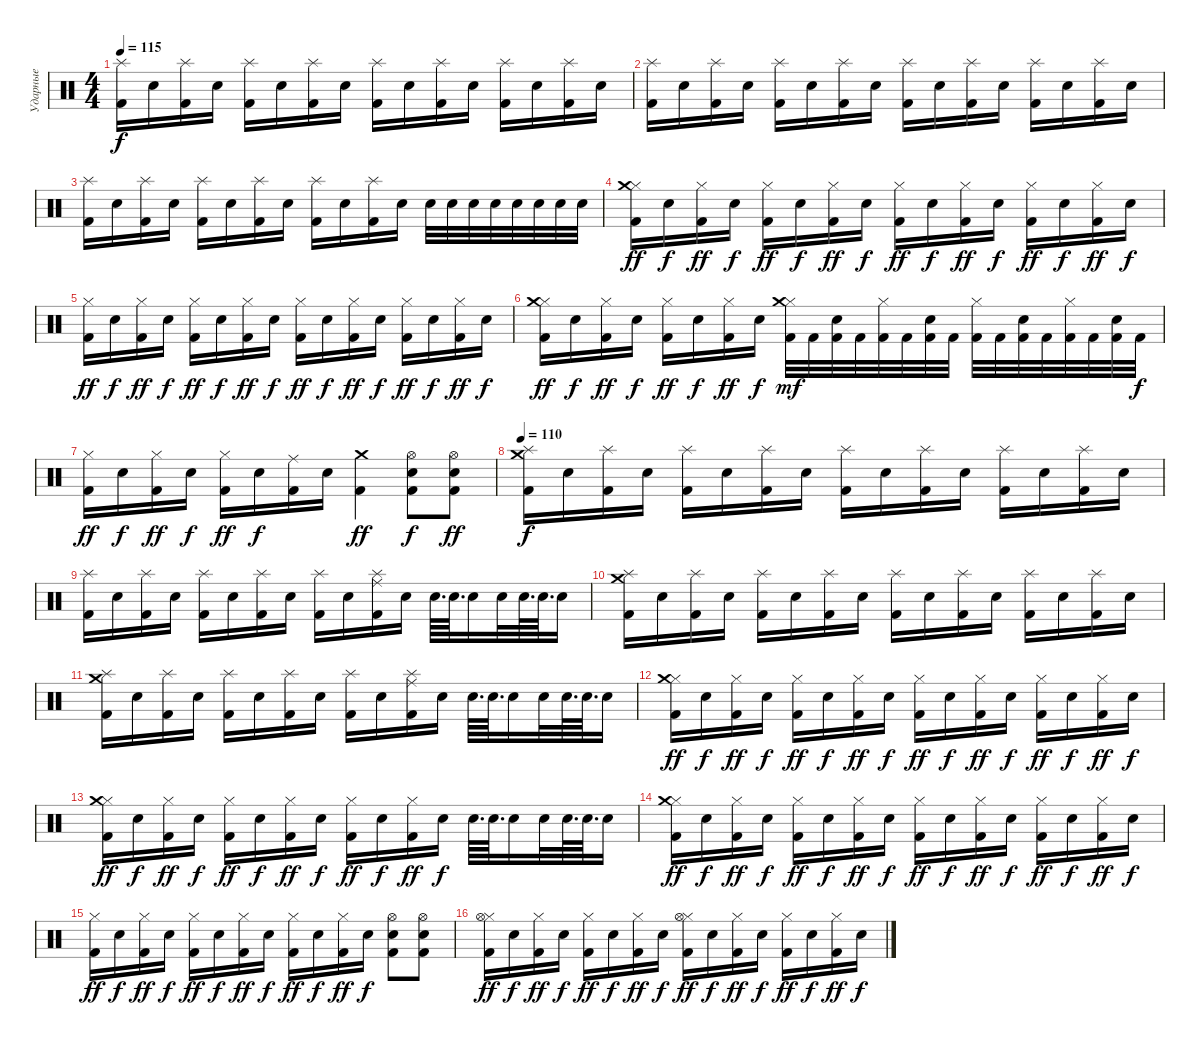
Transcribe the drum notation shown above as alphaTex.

\track ("Ударные" "Ударные") {instrument percussion}
\staff {score}
\articulation defaults
\ts (4 4)
\tempo 115
\clef neutral
\ks c
("Splash (hit)" "Kick (hit) 2").16{dy f} "Electric Snare (hit)".16 ("Splash (hit)" "Kick (hit) 2").16 "Electric Snare (hit)".16 ("Splash (hit)" "Kick (hit) 2").16 "Electric Snare (hit)".16 ("Splash (hit)" "Kick (hit) 2").16 "Electric Snare (hit)".16 ("Splash (hit)" "Kick (hit) 2").16 "Electric Snare (hit)".16 ("Splash (hit)" "Kick (hit) 2").16 "Electric Snare (hit)".16 ("Splash (hit)" "Kick (hit) 2").16 "Electric Snare (hit)".16 ("Splash (hit)" "Kick (hit) 2").16 "Electric Snare (hit)".16 |
("Splash (hit)" "Kick (hit) 2").16 "Electric Snare (hit)".16 ("Splash (hit)" "Kick (hit) 2").16 "Electric Snare (hit)".16 ("Splash (hit)" "Kick (hit) 2").16 "Electric Snare (hit)".16 ("Splash (hit)" "Kick (hit) 2").16 "Electric Snare (hit)".16 ("Splash (hit)" "Kick (hit) 2").16 "Electric Snare (hit)".16 ("Splash (hit)" "Kick (hit) 2").16 "Electric Snare (hit)".16 ("Splash (hit)" "Kick (hit) 2").16 "Electric Snare (hit)".16 ("Splash (hit)" "Kick (hit) 2").16 "Electric Snare (hit)".16 |
("Splash (hit)" "Kick (hit) 2").16 "Electric Snare (hit)".16 ("Splash (hit)" "Kick (hit) 2").16 "Electric Snare (hit)".16 ("Splash (hit)" "Kick (hit) 2").16 "Electric Snare (hit)".16 ("Splash (hit)" "Kick (hit) 2").16 "Electric Snare (hit)".16 ("Splash (hit)" "Kick (hit) 2").16 "Electric Snare (hit)".16 ("Splash (hit)" "Kick (hit) 2").16 "Electric Snare (hit)".16 "Snare (hit) 2".32 "Snare (hit) 2".32 "Snare (hit) 2".32 "Snare (hit) 2".32 "Electric Snare (hit)".32 "Electric Snare (hit)".32 "Electric Snare (hit)".32 "Electric Snare (hit)".32 |
("Hi-Hat (closed)" "Crash medium (hit)" "Kick (hit) 2").16{dy ff} "Electric Snare (hit)".16{dy f} ("Hi-Hat (closed)" "Kick (hit) 2").16{dy ff} "Electric Snare (hit)".16{dy f} ("Hi-Hat (closed)" "Kick (hit) 2").16{dy ff} "Electric Snare (hit)".16{dy f} ("Hi-Hat (closed)" "Kick (hit) 2").16{dy ff} "Electric Snare (hit)".16{dy f} ("Hi-Hat (closed)" "Kick (hit) 2").16{dy ff} "Electric Snare (hit)".16{dy f} ("Hi-Hat (closed)" "Kick (hit) 2").16{dy ff} "Electric Snare (hit)".16{dy f} ("Hi-Hat (closed)" "Kick (hit) 2").16{dy ff} "Electric Snare (hit)".16{dy f} ("Hi-Hat (closed)" "Kick (hit) 2").16{dy ff} "Electric Snare (hit)".16{dy f} |
("Hi-Hat (closed)" "Kick (hit) 2").16{dy ff} "Electric Snare (hit)".16{dy f} ("Hi-Hat (closed)" "Kick (hit) 2").16{dy ff} "Electric Snare (hit)".16{dy f} ("Hi-Hat (closed)" "Kick (hit) 2").16{dy ff} "Electric Snare (hit)".16{dy f} ("Hi-Hat (closed)" "Kick (hit) 2").16{dy ff} "Electric Snare (hit)".16{dy f} ("Hi-Hat (closed)" "Kick (hit) 2").16{dy ff} "Electric Snare (hit)".16{dy f} ("Hi-Hat (closed)" "Kick (hit) 2").16{dy ff} "Electric Snare (hit)".16{dy f} ("Hi-Hat (closed)" "Kick (hit) 2").16{dy ff} "Electric Snare (hit)".16{dy f} ("Hi-Hat (closed)" "Kick (hit) 2").16{dy ff} "Electric Snare (hit)".16{dy f} |
("Hi-Hat (closed)" "Crash medium (hit)" "Kick (hit) 2").16{dy ff} "Electric Snare (hit)".16{dy f} ("Hi-Hat (closed)" "Kick (hit) 2").16{dy ff} "Electric Snare (hit)".16{dy f} ("Hi-Hat (closed)" "Kick (hit) 2").16{dy ff} "Electric Snare (hit)".16{dy f} ("Hi-Hat (closed)" "Kick (hit) 2").16{dy ff} "Electric Snare (hit)".16{dy f} ("Hi-Hat (closed)" "Crash medium (hit)" "Kick (hit) 2").32{dy mf} "Kick (hit) 2".32 ("Electric Snare (hit)" "Kick (hit) 2").32 "Kick (hit) 2".32 ("Hi-Hat (closed)" "Kick (hit) 2").32 "Kick (hit) 2".32 ("Electric Snare (hit)" "Kick (hit) 2").32 "Kick (hit) 2".32 ("Hi-Hat (closed)" "Kick (hit) 2").32 "Kick (hit) 2".32 ("Electric Snare (hit)" "Kick (hit) 2").32 "Kick (hit) 2".32 ("Hi-Hat (closed)" "Kick (hit) 2").32 "Kick (hit) 2".32 ("Electric Snare (hit)" "Kick (hit) 2").32 "Kick (hit) 2".32{dy f} |
("Hi-Hat (closed)" "Kick (hit) 2").16{dy ff} "Electric Snare (hit)".16{dy f} ("Hi-Hat (closed)" "Kick (hit) 2").16{dy ff} "Electric Snare (hit)".16{dy f} ("Hi-Hat (closed)" "Kick (hit) 2").16{dy ff} "Electric Snare (hit)".16{dy f} ("Ride (middle)" "Kick (hit) 2").16 "Electric Snare (hit)".16 ("Crash medium (hit)" "Kick (hit) 2").4{dy ff} ("Hi-Hat (open)" "Electric Snare (hit)" "Kick (hit) 2").8{dy f} ("Hi-Hat (open)" "Electric Snare (hit)" "Kick (hit) 2").8{dy ff} |
\tempo 110
("Splash (hit)" "Crash medium (hit)" "Kick (hit) 2").16{dy f} "Electric Snare (hit)".16 ("Splash (hit)" "Kick (hit) 2").16 "Electric Snare (hit)".16 ("Splash (hit)" "Kick (hit) 2").16 "Electric Snare (hit)".16 ("Splash (hit)" "Kick (hit) 2").16 "Electric Snare (hit)".16 ("Splash (hit)" "Kick (hit) 2").16 "Electric Snare (hit)".16 ("Splash (hit)" "Kick (hit) 2").16 "Electric Snare (hit)".16 ("Splash (hit)" "Kick (hit) 2").16 "Electric Snare (hit)".16 ("Splash (hit)" "Kick (hit) 2").16 "Electric Snare (hit)".16 |
("Splash (hit)" "Kick (hit) 2").16 "Electric Snare (hit)".16 ("Splash (hit)" "Kick (hit) 2").16 "Electric Snare (hit)".16 ("Splash (hit)" "Kick (hit) 2").16 "Electric Snare (hit)".16 ("Splash (hit)" "Kick (hit) 2").16 "Electric Snare (hit)".16 ("Splash (hit)" "Kick (hit) 2").16 "Electric Snare (hit)".16 ("Splash (hit)" "Ride (middle)" "Kick (hit) 2").16 "Electric Snare (hit)".16 "Electric Snare (hit)".64{d} "Electric Snare (hit)".64{d} "Snare (hit) 2".16 "Snare (hit) 2".32 "Electric Snare (hit)".64{d} "Electric Snare (hit)".64{d} "Electric Snare (hit)".16 |
("Splash (hit)" "Crash medium (hit)" "Kick (hit) 2").16 "Electric Snare (hit)".16 ("Splash (hit)" "Kick (hit) 2").16 "Electric Snare (hit)".16 ("Splash (hit)" "Kick (hit) 2").16 "Electric Snare (hit)".16 ("Splash (hit)" "Kick (hit) 2").16 "Electric Snare (hit)".16 ("Splash (hit)" "Kick (hit) 2").16 "Electric Snare (hit)".16 ("Splash (hit)" "Kick (hit) 2").16 "Electric Snare (hit)".16 ("Splash (hit)" "Kick (hit) 2").16 "Electric Snare (hit)".16 ("Splash (hit)" "Kick (hit) 2").16 "Electric Snare (hit)".16 |
("Splash (hit)" "Crash medium (hit)" "Kick (hit) 2").16 "Electric Snare (hit)".16 ("Splash (hit)" "Kick (hit) 2").16 "Electric Snare (hit)".16 ("Splash (hit)" "Kick (hit) 2").16 "Electric Snare (hit)".16 ("Splash (hit)" "Kick (hit) 2").16 "Electric Snare (hit)".16 ("Splash (hit)" "Kick (hit) 2").16 "Electric Snare (hit)".16 ("Splash (hit)" "Ride (middle)" "Kick (hit) 2").16 "Electric Snare (hit)".16 "Electric Snare (hit)".64{d} "Electric Snare (hit)".64{d} "Snare (hit) 2".16 "Snare (hit) 2".32 "Electric Snare (hit)".64{d} "Electric Snare (hit)".64{d} "Electric Snare (hit)".16 |
("Hi-Hat (closed)" "Crash medium (hit)" "Kick (hit) 2").16{dy ff} "Electric Snare (hit)".16{dy f} ("Hi-Hat (closed)" "Kick (hit) 2").16{dy ff} "Electric Snare (hit)".16{dy f} ("Hi-Hat (closed)" "Kick (hit) 2").16{dy ff} "Electric Snare (hit)".16{dy f} ("Hi-Hat (closed)" "Kick (hit) 2").16{dy ff} "Electric Snare (hit)".16{dy f} ("Hi-Hat (closed)" "Kick (hit) 2").16{dy ff} "Electric Snare (hit)".16{dy f} ("Hi-Hat (closed)" "Kick (hit) 2").16{dy ff} "Electric Snare (hit)".16{dy f} ("Hi-Hat (closed)" "Kick (hit) 2").16{dy ff} "Electric Snare (hit)".16{dy f} ("Hi-Hat (closed)" "Kick (hit) 2").16{dy ff} "Electric Snare (hit)".16{dy f} |
("Hi-Hat (closed)" "Crash medium (hit)" "Kick (hit) 2").16{dy ff} "Electric Snare (hit)".16{dy f} ("Hi-Hat (closed)" "Kick (hit) 2").16{dy ff} "Electric Snare (hit)".16{dy f} ("Hi-Hat (closed)" "Kick (hit) 2").16{dy ff} "Electric Snare (hit)".16{dy f} ("Hi-Hat (closed)" "Kick (hit) 2").16{dy ff} "Electric Snare (hit)".16{dy f} ("Hi-Hat (closed)" "Kick (hit) 2").16{dy ff} "Electric Snare (hit)".16{dy f} ("Hi-Hat (closed)" "Kick (hit) 2").16{dy ff} "Electric Snare (hit)".16{dy f} "Electric Snare (hit)".64{d} "Electric Snare (hit)".64{d} "Snare (hit) 2".16 "Snare (hit) 2".32 "Electric Snare (hit)".64{d} "Electric Snare (hit)".64{d} "Electric Snare (hit)".16 |
("Hi-Hat (closed)" "Crash medium (hit)" "Kick (hit) 2").16{dy ff} "Electric Snare (hit)".16{dy f} ("Hi-Hat (closed)" "Kick (hit) 2").16{dy ff} "Electric Snare (hit)".16{dy f} ("Hi-Hat (closed)" "Kick (hit) 2").16{dy ff} "Electric Snare (hit)".16{dy f} ("Hi-Hat (closed)" "Kick (hit) 2").16{dy ff} "Electric Snare (hit)".16{dy f} ("Hi-Hat (closed)" "Kick (hit) 2").16{dy ff} "Electric Snare (hit)".16{dy f} ("Hi-Hat (closed)" "Kick (hit) 2").16{dy ff} "Electric Snare (hit)".16{dy f} ("Hi-Hat (closed)" "Kick (hit) 2").16{dy ff} "Electric Snare (hit)".16{dy f} ("Hi-Hat (closed)" "Kick (hit) 2").16{dy ff} "Electric Snare (hit)".16{dy f} |
("Hi-Hat (closed)" "Kick (hit) 2").16{dy ff} "Electric Snare (hit)".16{dy f} ("Hi-Hat (closed)" "Kick (hit) 2").16{dy ff} "Electric Snare (hit)".16{dy f} ("Hi-Hat (closed)" "Kick (hit) 2").16{dy ff} "Electric Snare (hit)".16{dy f} ("Hi-Hat (closed)" "Kick (hit) 2").16{dy ff} "Electric Snare (hit)".16{dy f} ("Hi-Hat (closed)" "Kick (hit) 2").16{dy ff} "Electric Snare (hit)".16{dy f} ("Hi-Hat (closed)" "Kick (hit) 2").16{dy ff} "Electric Snare (hit)".16{dy f} ("Hi-Hat (open)" "Electric Snare (hit)" "Kick (hit) 2").8 ("Hi-Hat (open)" "Electric Snare (hit)" "Kick (hit) 2").8 |
("Hi-Hat (closed)" "Hi-Hat (open)" "Kick (hit) 2").16{dy ff} "Electric Snare (hit)".16{dy f} ("Hi-Hat (closed)" "Kick (hit) 2").16{dy ff} "Electric Snare (hit)".16{dy f} ("Hi-Hat (closed)" "Kick (hit) 2").16{dy ff} "Electric Snare (hit)".16{dy f} ("Hi-Hat (closed)" "Kick (hit) 2").16{dy ff} "Electric Snare (hit)".16{dy f} ("Hi-Hat (closed)" "Hi-Hat (open)" "Kick (hit) 2").16{dy ff} "Electric Snare (hit)".16{dy f} ("Hi-Hat (closed)" "Kick (hit) 2").16{dy ff} "Electric Snare (hit)".16{dy f} ("Hi-Hat (closed)" "Kick (hit) 2").16{dy ff} "Electric Snare (hit)".16{dy f} ("Hi-Hat (closed)" "Kick (hit) 2").16{dy ff} "Electric Snare (hit)".16{dy f}
